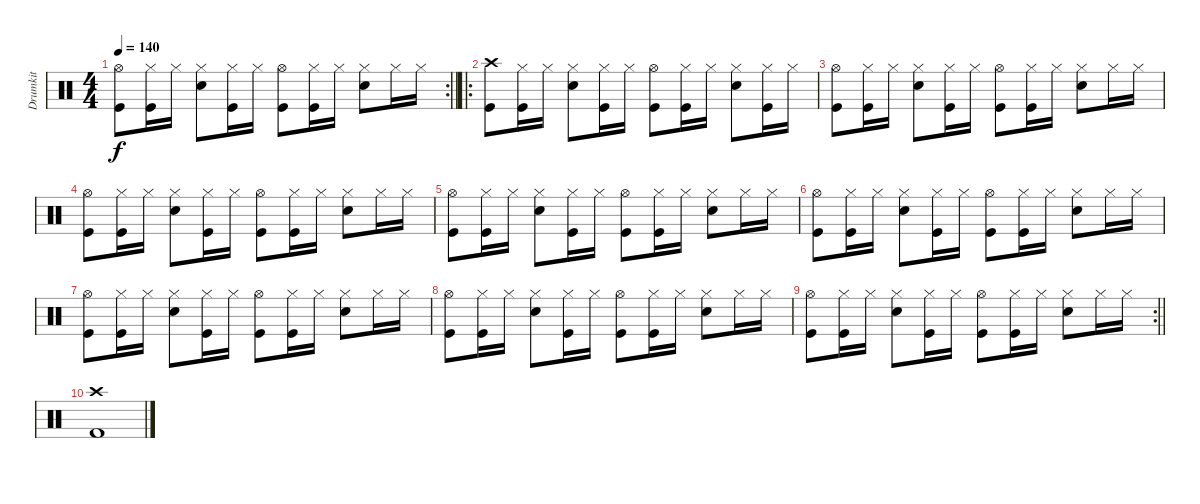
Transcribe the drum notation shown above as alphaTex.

\track ("Drumkit" "Drumkit") {instrument percussion}
\staff {score}
\articulation defaults
\rc 2
\ts (4 4)
\tempo 140
\clef neutral
\barLineRight lightlight
\ks c
("Kick (hit)" "Hi-Hat (open)").8{dy f} ("Hi-Hat (closed)" "Kick (hit)").16 "Hi-Hat (closed)".16 ("Hi-Hat (closed)" "Snare (hit) 2").8 ("Hi-Hat (closed)" "Kick (hit)").16 "Hi-Hat (closed)".16 ("Hi-Hat (open)" "Kick (hit)").8 ("Hi-Hat (closed)" "Kick (hit)").16 "Hi-Hat (closed)".16 ("Hi-Hat (closed)" "Snare (hit) 2").8 "Hi-Hat (closed)".16 "Hi-Hat (closed)".16 |
\ro
("Crash high (hit)" "Kick (hit)").8 ("Hi-Hat (closed)" "Kick (hit)").16 "Hi-Hat (closed)".16 ("Snare (hit) 2" "Hi-Hat (closed)").8 ("Hi-Hat (closed)" "Kick (hit)").16 "Hi-Hat (closed)".16 ("Hi-Hat (open)" "Kick (hit)").8 ("Hi-Hat (closed)" "Kick (hit)").16 "Hi-Hat (closed)".16 ("Hi-Hat (closed)" "Snare (hit) 2").8 ("Hi-Hat (closed)" "Kick (hit)").16 "Hi-Hat (closed)".16 |
("Kick (hit)" "Hi-Hat (open)").8 ("Hi-Hat (closed)" "Kick (hit)").16 "Hi-Hat (closed)".16 ("Hi-Hat (closed)" "Snare (hit) 2").8 ("Hi-Hat (closed)" "Kick (hit)").16 "Hi-Hat (closed)".16 ("Hi-Hat (open)" "Kick (hit)").8 ("Hi-Hat (closed)" "Kick (hit)").16 "Hi-Hat (closed)".16 ("Hi-Hat (closed)" "Snare (hit) 2").8 "Hi-Hat (closed)".16 "Hi-Hat (closed)".16 |
("Kick (hit)" "Hi-Hat (open)").8 ("Hi-Hat (closed)" "Kick (hit)").16 "Hi-Hat (closed)".16 ("Hi-Hat (closed)" "Snare (hit) 2").8 ("Hi-Hat (closed)" "Kick (hit)").16 "Hi-Hat (closed)".16 ("Hi-Hat (open)" "Kick (hit)").8 ("Hi-Hat (closed)" "Kick (hit)").16 "Hi-Hat (closed)".16 ("Hi-Hat (closed)" "Snare (hit) 2").8 "Hi-Hat (closed)".16 "Hi-Hat (closed)".16 |
("Kick (hit)" "Hi-Hat (open)").8 ("Hi-Hat (closed)" "Kick (hit)").16 "Hi-Hat (closed)".16 ("Hi-Hat (closed)" "Snare (hit) 2").8 ("Hi-Hat (closed)" "Kick (hit)").16 "Hi-Hat (closed)".16 ("Hi-Hat (open)" "Kick (hit)").8 ("Hi-Hat (closed)" "Kick (hit)").16 "Hi-Hat (closed)".16 ("Hi-Hat (closed)" "Snare (hit) 2").8 "Hi-Hat (closed)".16 "Hi-Hat (closed)".16 |
("Kick (hit)" "Hi-Hat (open)").8 ("Hi-Hat (closed)" "Kick (hit)").16 "Hi-Hat (closed)".16 ("Hi-Hat (closed)" "Snare (hit) 2").8 ("Hi-Hat (closed)" "Kick (hit)").16 "Hi-Hat (closed)".16 ("Hi-Hat (open)" "Kick (hit)").8 ("Hi-Hat (closed)" "Kick (hit)").16 "Hi-Hat (closed)".16 ("Hi-Hat (closed)" "Snare (hit) 2").8 "Hi-Hat (closed)".16 "Hi-Hat (closed)".16 |
("Kick (hit)" "Hi-Hat (open)").8 ("Hi-Hat (closed)" "Kick (hit)").16 "Hi-Hat (closed)".16 ("Hi-Hat (closed)" "Snare (hit) 2").8 ("Hi-Hat (closed)" "Kick (hit)").16 "Hi-Hat (closed)".16 ("Hi-Hat (open)" "Kick (hit)").8 ("Hi-Hat (closed)" "Kick (hit)").16 "Hi-Hat (closed)".16 ("Hi-Hat (closed)" "Snare (hit) 2").8 "Hi-Hat (closed)".16 "Hi-Hat (closed)".16 |
("Kick (hit)" "Hi-Hat (open)").8 ("Hi-Hat (closed)" "Kick (hit)").16 "Hi-Hat (closed)".16 ("Hi-Hat (closed)" "Snare (hit) 2").8 ("Hi-Hat (closed)" "Kick (hit)").16 "Hi-Hat (closed)".16 ("Hi-Hat (open)" "Kick (hit)").8 ("Hi-Hat (closed)" "Kick (hit)").16 "Hi-Hat (closed)".16 ("Hi-Hat (closed)" "Snare (hit) 2").8 "Hi-Hat (closed)".16 "Hi-Hat (closed)".16 |
\rc 2
\barLineRight lightlight
("Kick (hit)" "Hi-Hat (open)").8 ("Hi-Hat (closed)" "Kick (hit)").16 "Hi-Hat (closed)".16 ("Hi-Hat (closed)" "Snare (hit) 2").8 ("Hi-Hat (closed)" "Kick (hit)").16 "Hi-Hat (closed)".16 ("Hi-Hat (open)" "Kick (hit)").8 ("Hi-Hat (closed)" "Kick (hit)").16 "Hi-Hat (closed)".16 ("Hi-Hat (closed)" "Snare (hit) 2").8 "Hi-Hat (closed)".16 "Hi-Hat (closed)".16 |
("Crash high (hit)" "Kick (hit) 2").1
